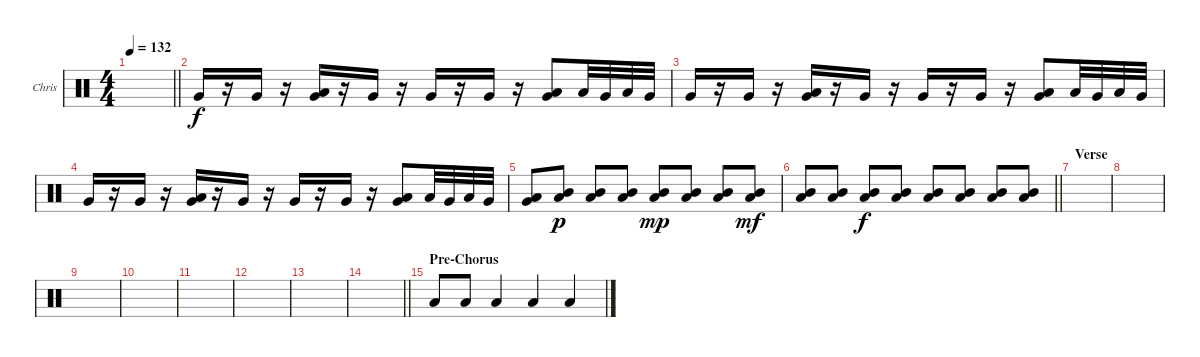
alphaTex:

\bracketExtendMode groupsimilarinstruments
\firstSystemTrackNameOrientation horizontal
\otherSystemsTrackNameOrientation horizontal
\track ("Chris Fehn" "Chris") {instrument percussion}
\staff {score}
\articulation defaults
\ts (4 4)
\tempo 132
\clef neutral
\barLineRight lightlight
\ks c
|
"Very Low Tom (hit)".16 r.16 "Very Low Tom (hit)".16 r.16 ("Very Low Tom (hit)" "Low Tom (hit)").16 r.16 "Very Low Tom (hit)".16 r.16 "Very Low Tom (hit)".16 r.16 "Very Low Tom (hit)".16 r.16 ("Very Low Tom (hit)" "Low Tom (hit)").8 "Low Tom (hit)".32 "Very Low Tom (hit)".32 "Low Tom (hit)".32 "Very Low Tom (hit)".32 |
"Very Low Tom (hit)".16 r.16 "Very Low Tom (hit)".16 r.16 ("Very Low Tom (hit)" "Low Tom (hit)").16 r.16 "Very Low Tom (hit)".16 r.16 "Very Low Tom (hit)".16 r.16 "Very Low Tom (hit)".16 r.16 ("Very Low Tom (hit)" "Low Tom (hit)").8 "Low Tom (hit)".32 "Very Low Tom (hit)".32 "Low Tom (hit)".32 "Very Low Tom (hit)".32 |
"Very Low Tom (hit)".16 r.16 "Very Low Tom (hit)".16 r.16 ("Very Low Tom (hit)" "Low Tom (hit)").16 r.16 "Very Low Tom (hit)".16 r.16 "Very Low Tom (hit)".16 r.16 "Very Low Tom (hit)".16 r.16 ("Very Low Tom (hit)" "Low Tom (hit)").8 "Low Tom (hit)".32 "Very Low Tom (hit)".32 "Low Tom (hit)".32 "Very Low Tom (hit)".32 |
("Very Low Tom (hit)" "Low Tom (hit)").8 ("Low Tom (hit)" "Mid Tom (hit)").8{dy p} ("Low Tom (hit)" "Mid Tom (hit)").8 ("Low Tom (hit)" "Mid Tom (hit)").8 ("Low Tom (hit)" "Mid Tom (hit)").8{dy mp} ("Low Tom (hit)" "Mid Tom (hit)").8 ("Low Tom (hit)" "Mid Tom (hit)").8 ("Low Tom (hit)" "Mid Tom (hit)").8{dy mf} |
\barLineRight lightlight
("Low Tom (hit)" "Mid Tom (hit)").8 ("Low Tom (hit)" "Mid Tom (hit)").8 ("Low Tom (hit)" "Mid Tom (hit)").8{dy f} ("Low Tom (hit)" "Mid Tom (hit)").8 ("Low Tom (hit)" "Mid Tom (hit)").8 ("Low Tom (hit)" "Mid Tom (hit)").8 ("Low Tom (hit)" "Mid Tom (hit)").8 ("Low Tom (hit)" "Mid Tom (hit)").8 |
\section ("" "Verse")
|
|
|
|
|
|
|
\barLineRight lightlight
|
\section ("" "Pre-Chorus")
"Low Tom (hit)".8 "Low Tom (hit)".8 "Low Tom (hit)".4 "Low Tom (hit)".4 "Low Tom (hit)".4
